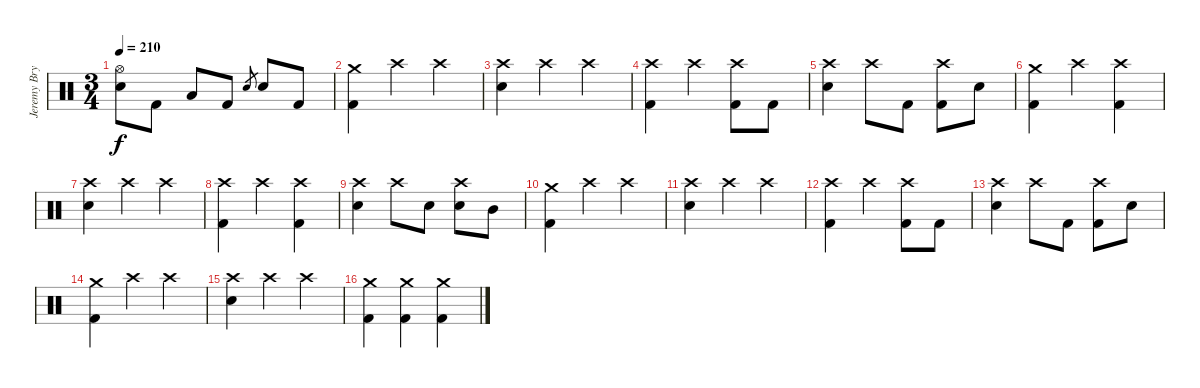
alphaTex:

\track ("Jeremy Bryan - Drums" "Jeremy Bry") {instrument percussion}
\staff {score}
\articulation defaults
\ts (3 4)
\tempo 210
\clef neutral
\ks c
("Hi-Hat (open)" "Electric Snare (hit)").8{dy f} "Kick (hit) 2".8 "Low Tom (hit)".8 "Kick (hit) 2".8 "Electric Snare (hit)".8{gr} "Electric Snare (hit)".8 "Kick (hit) 2".8 |
("Crash medium (hit)" "Kick (hit) 2").4 "Crash high (hit)".4 "Crash high (hit)".4 |
("Crash high (hit)" "Electric Snare (hit)").4 "Crash high (hit)".4 "Crash high (hit)".4 |
("Crash high (hit)" "Kick (hit) 2").4 "Crash high (hit)".4 ("Crash high (hit)" "Kick (hit) 2").8 "Kick (hit) 2".8 |
("Crash high (hit)" "Electric Snare (hit)").4 "Crash high (hit)".8 "Kick (hit) 2".8 ("Crash high (hit)" "Kick (hit) 2").8 "Electric Snare (hit)".8 |
("Crash medium (hit)" "Kick (hit) 2").4 "Crash high (hit)".4 ("Crash high (hit)" "Kick (hit) 2").4 |
("Crash high (hit)" "Electric Snare (hit)").4 "Crash high (hit)".4 "Crash high (hit)".4 |
("Crash high (hit)" "Kick (hit) 2").4 "Crash high (hit)".4 ("Crash high (hit)" "Kick (hit) 2").4 |
("Crash high (hit)" "Electric Snare (hit)").4 "Crash high (hit)".8 "Electric Snare (hit)".8 ("Crash high (hit)" "Electric Snare (hit)").8 "Mid Tom (hit)".8 |
("Crash medium (hit)" "Kick (hit) 2").4 "Crash high (hit)".4 "Crash high (hit)".4 |
("Crash high (hit)" "Electric Snare (hit)").4 "Crash high (hit)".4 "Crash high (hit)".4 |
("Crash high (hit)" "Kick (hit) 2").4 "Crash high (hit)".4 ("Crash high (hit)" "Kick (hit) 2").8 "Kick (hit) 2".8 |
("Crash high (hit)" "Electric Snare (hit)").4 "Crash high (hit)".8 "Kick (hit) 2".8 ("Crash high (hit)" "Kick (hit) 2").8 "Electric Snare (hit)".8 |
("Crash medium (hit)" "Kick (hit) 2").4 "Crash high (hit)".4 "Crash high (hit)".4 |
("Crash high (hit)" "Electric Snare (hit)").4 "Crash high (hit)".4 "Crash high (hit)".4 |
("Crash medium (hit)" "Kick (hit) 2").4 ("Crash medium (hit)" "Kick (hit) 2").4 ("Crash medium (hit)" "Kick (hit) 2").4
